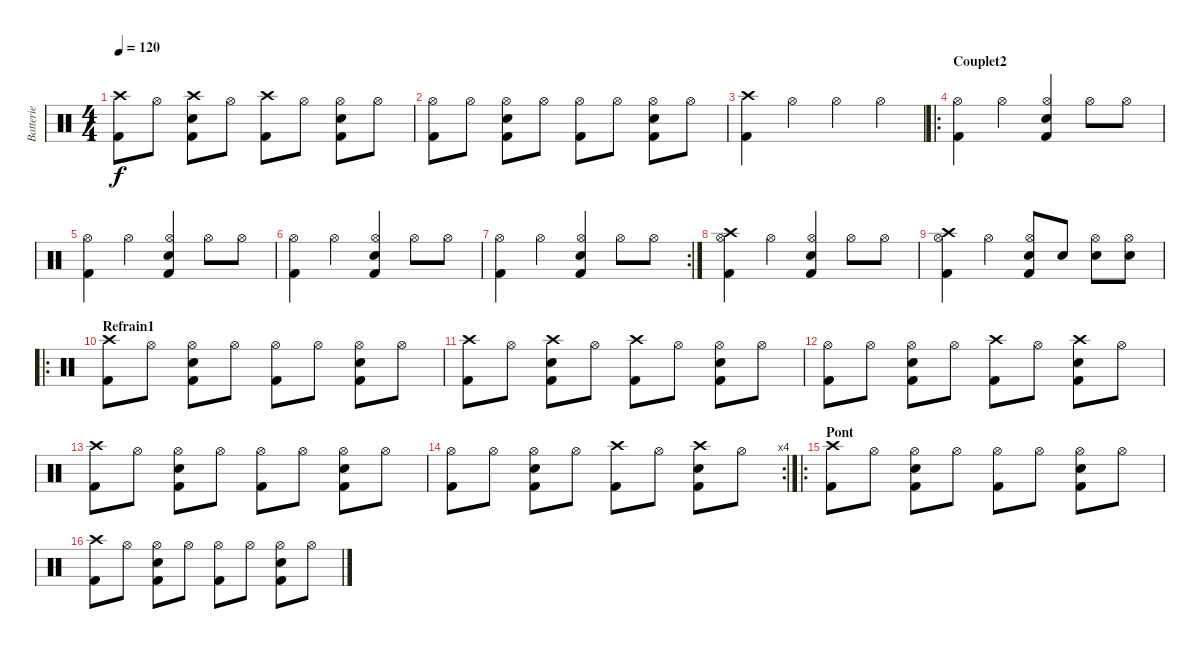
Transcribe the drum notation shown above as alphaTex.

\track ("Batterie" "Batterie") {instrument percussion}
\staff {score}
\articulation defaults
\ts (4 4)
\tempo 120
\clef neutral
\ks c
("Crash high (hit)" "Kick (hit) 2").8{dy f} "Hi-Hat (open)".8 ("Crash high (hit)" "Electric Snare (hit)" "Kick (hit) 2").8 "Hi-Hat (open)".8 ("Crash high (hit)" "Kick (hit) 2").8 "Hi-Hat (open)".8 ("Electric Snare (hit)" "Hi-Hat (open)" "Kick (hit) 2").8 "Hi-Hat (open)".8 |
("Hi-Hat (open)" "Kick (hit) 2").8 "Hi-Hat (open)".8 ("Electric Snare (hit)" "Hi-Hat (open)" "Kick (hit) 2").8 "Hi-Hat (open)".8 ("Hi-Hat (open)" "Kick (hit) 2").8 "Hi-Hat (open)".8 ("Electric Snare (hit)" "Hi-Hat (open)" "Kick (hit) 2").8 "Hi-Hat (open)".8 |
("Crash high (hit)" "Kick (hit) 2").4 "Hi-Hat (open)".4 "Hi-Hat (open)".4 "Hi-Hat (open)".4 |
\ro
\section ("" "Couplet2")
("Hi-Hat (open)" "Kick (hit) 2").4 "Hi-Hat (open)".4 ("Electric Snare (hit)" "Hi-Hat (open)" "Kick (hit) 2").4 "Hi-Hat (open)".8 "Hi-Hat (open)".8 |
("Hi-Hat (open)" "Kick (hit) 2").4 "Hi-Hat (open)".4 ("Electric Snare (hit)" "Hi-Hat (open)" "Kick (hit) 2").4 "Hi-Hat (open)".8 "Hi-Hat (open)".8 |
("Hi-Hat (open)" "Kick (hit) 2").4 "Hi-Hat (open)".4 ("Electric Snare (hit)" "Hi-Hat (open)" "Kick (hit) 2").4 "Hi-Hat (open)".8 "Hi-Hat (open)".8 |
\rc 2
("Hi-Hat (open)" "Kick (hit) 2").4 "Hi-Hat (open)".4 ("Electric Snare (hit)" "Hi-Hat (open)" "Kick (hit) 2").4 "Hi-Hat (open)".8 "Hi-Hat (open)".8 |
("Crash high (hit)" "Hi-Hat (open)" "Kick (hit) 2").4 "Hi-Hat (open)".4 ("Electric Snare (hit)" "Hi-Hat (open)" "Kick (hit) 2").4 "Hi-Hat (open)".8 "Hi-Hat (open)".8 |
("Crash high (hit)" "Hi-Hat (open)" "Kick (hit) 2").4 "Hi-Hat (open)".4 ("Electric Snare (hit)" "Hi-Hat (open)" "Kick (hit) 2").8 "Electric Snare (hit)".8 ("Electric Snare (hit)" "Hi-Hat (open)").8 ("Electric Snare (hit)" "Hi-Hat (open)").8 |
\ro
\section ("" "Refrain1")
("Crash high (hit)" "Kick (hit) 2").8 "Hi-Hat (open)".8 ("Electric Snare (hit)" "Hi-Hat (open)" "Kick (hit) 2").8 "Hi-Hat (open)".8 ("Hi-Hat (open)" "Kick (hit) 2").8 "Hi-Hat (open)".8 ("Electric Snare (hit)" "Hi-Hat (open)" "Kick (hit) 2").8 "Hi-Hat (open)".8 |
("Crash high (hit)" "Kick (hit) 2").8 "Hi-Hat (open)".8 ("Crash high (hit)" "Electric Snare (hit)" "Kick (hit) 2").8 "Hi-Hat (open)".8 ("Crash high (hit)" "Kick (hit) 2").8 "Hi-Hat (open)".8 ("Electric Snare (hit)" "Hi-Hat (open)" "Kick (hit) 2").8 "Hi-Hat (open)".8 |
("Hi-Hat (open)" "Kick (hit) 2").8 "Hi-Hat (open)".8 ("Electric Snare (hit)" "Hi-Hat (open)" "Kick (hit) 2").8 "Hi-Hat (open)".8 ("Crash high (hit)" "Kick (hit) 2").8 "Hi-Hat (open)".8 ("Crash high (hit)" "Electric Snare (hit)" "Kick (hit) 2").8 "Hi-Hat (open)".8 |
("Crash high (hit)" "Kick (hit) 2").8 "Hi-Hat (open)".8 ("Electric Snare (hit)" "Hi-Hat (open)" "Kick (hit) 2").8 "Hi-Hat (open)".8 ("Hi-Hat (open)" "Kick (hit) 2").8 "Hi-Hat (open)".8 ("Electric Snare (hit)" "Hi-Hat (open)" "Kick (hit) 2").8 "Hi-Hat (open)".8 |
\rc 4
("Hi-Hat (open)" "Kick (hit) 2").8 "Hi-Hat (open)".8 ("Electric Snare (hit)" "Hi-Hat (open)" "Kick (hit) 2").8 "Hi-Hat (open)".8 ("Crash high (hit)" "Kick (hit) 2").8 "Hi-Hat (open)".8 ("Crash high (hit)" "Electric Snare (hit)" "Kick (hit) 2").8 "Hi-Hat (open)".8 |
\ro
\section ("" "Pont")
("Crash high (hit)" "Kick (hit) 2").8 "Hi-Hat (open)".8 ("Electric Snare (hit)" "Hi-Hat (open)" "Kick (hit) 2").8 "Hi-Hat (open)".8 ("Hi-Hat (open)" "Kick (hit) 2").8 "Hi-Hat (open)".8 ("Electric Snare (hit)" "Hi-Hat (open)" "Kick (hit) 2").8 "Hi-Hat (open)".8 |
("Crash high (hit)" "Kick (hit) 2").8 "Hi-Hat (open)".8 ("Electric Snare (hit)" "Hi-Hat (open)" "Kick (hit) 2").8 "Hi-Hat (open)".8 ("Hi-Hat (open)" "Kick (hit) 2").8 "Hi-Hat (open)".8 ("Electric Snare (hit)" "Hi-Hat (open)" "Kick (hit) 2").8 "Hi-Hat (open)".8
